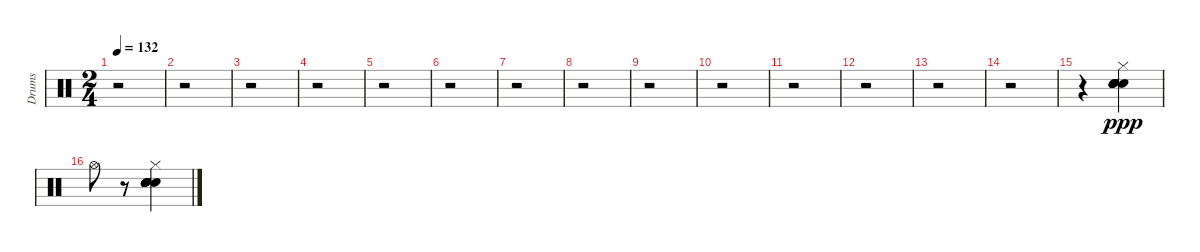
\track ("Drums" "Drums") {instrument percussion}
\staff {score}
\articulation defaults
\ts (2 4)
\tempo 132
\clef neutral
\ks c
r.2{dy ppp} |
r.2 |
r.2 |
r.2 |
r.2 |
r.2 |
r.2 |
r.2 |
r.2 |
r.2 |
r.2 |
r.2 |
r.2 |
r.2 |
r.4 ("Hand Clap (hit)" "Hand Clap (hit)" "Hand Clap (hit)" "Hand Clap (hit)" "Hand Clap (hit)" "Hi-Hat (closed)").4{bd 60} |
"Hi-Hat (open)".8 r.8 ("Hand Clap (hit)" "Hand Clap (hit)" "Hand Clap (hit)" "Hand Clap (hit)" "Hand Clap (hit)" "Hi-Hat (closed)").4{bd 60}
